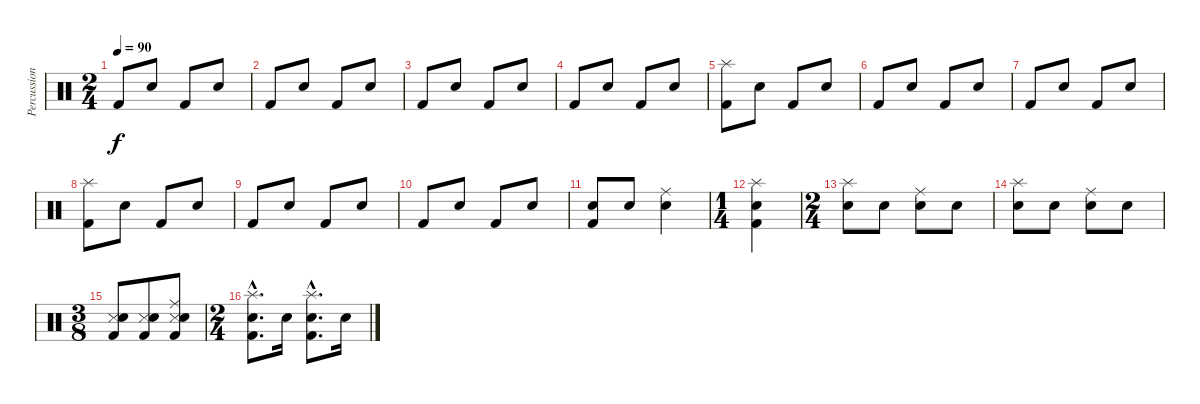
\track ("Percussion" "Percussion") {instrument percussion}
\staff {score}
\articulation defaults
\ts (2 4)
\tempo 90
\clef neutral
\ks c "Kick (hit) 2".8{dy f} "Snare (hit) 2".8 "Kick (hit) 2".8 "Snare (hit) 2".8
|
"Kick (hit) 2".8 "Snare (hit) 2".8 "Kick (hit) 2".8 "Snare (hit) 2".8 |
"Kick (hit) 2".8 "Snare (hit) 2".8 "Kick (hit) 2".8 "Snare (hit) 2".8 |
"Kick (hit) 2".8 "Snare (hit) 2".8 "Kick (hit) 2".8 "Snare (hit) 2".8 |
("Splash (hit)" "Kick (hit) 2").8 "Snare (hit) 2".8 "Kick (hit) 2".8 "Snare (hit) 2".8 |
"Kick (hit) 2".8 "Snare (hit) 2".8 "Kick (hit) 2".8 "Snare (hit) 2".8 |
"Kick (hit) 2".8 "Snare (hit) 2".8 "Kick (hit) 2".8 "Snare (hit) 2".8 |
("Splash (hit)" "Kick (hit) 2").8 "Snare (hit) 2".8 "Kick (hit) 2".8 "Snare (hit) 2".8 |
"Kick (hit) 2".8 "Snare (hit) 2".8 "Kick (hit) 2".8 "Snare (hit) 2".8 |
"Kick (hit) 2".8 "Snare (hit) 2".8 "Kick (hit) 2".8 "Snare (hit) 2".8 |
("Snare (hit) 2" "Kick (hit) 2").8 "Snare (hit) 2".8 ("Ride (middle)" "Snare (hit) 2").4 |
\ts (1 4)
("Splash (hit)" "Snare (hit) 2" "Kick (hit) 2").4 |
\ts (2 4)
("Splash (hit)" "Electric Snare (hit)").8 "Electric Snare (hit)".8 ("Ride (middle)" "Electric Snare (hit)").8 "Electric Snare (hit)".8 |
("Splash (hit)" "Electric Snare (hit)").8 "Electric Snare (hit)".8 ("Ride (middle)" "Electric Snare (hit)").8 "Electric Snare (hit)".8 |
\ts (3 8)
("Snare (side stick) 3" "Snare (hit) 2" "Kick (hit) 2").8 ("Snare (side stick) 3" "Snare (hit) 2" "Kick (hit) 2").8 ("Ride (middle)" "Snare (side stick) 3" "Snare (hit) 2" "Kick (hit) 2").8 |
\ts (2 4)
("Splash (hit)"{hac} "Snare (hit) 2"{hac} "Kick (hit) 2"{hac}).8{d} "Electric Snare (hit)".16 ("Splash (hit)"{hac} "Snare (hit) 2"{hac} "Kick (hit) 2"{hac}).8{d} "Electric Snare (hit)".16
